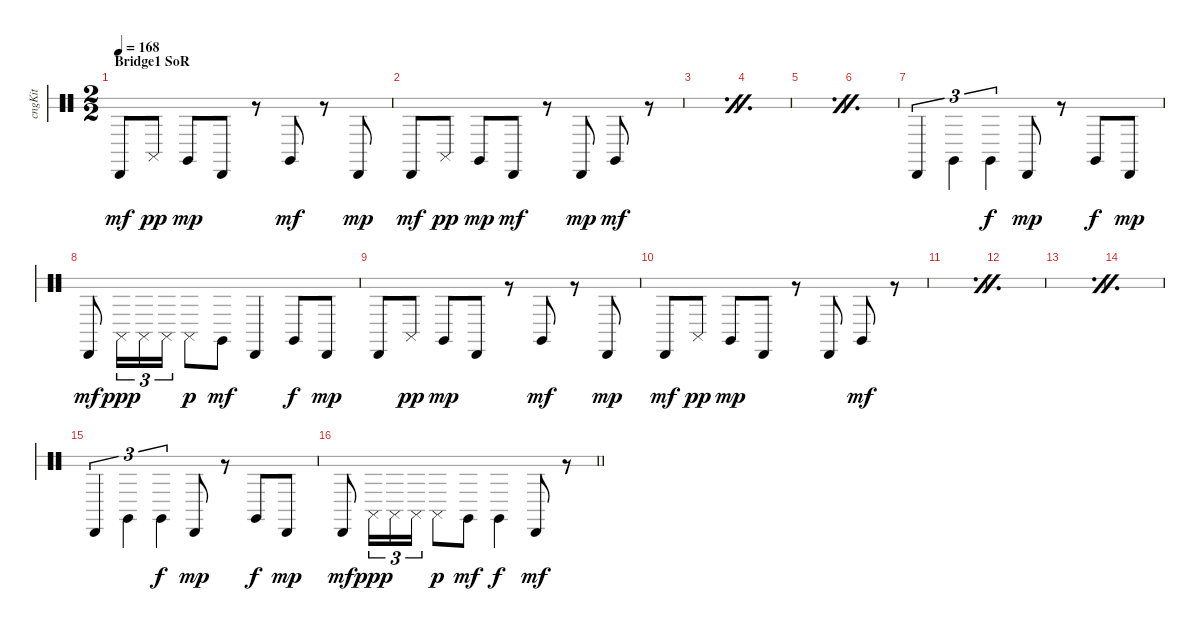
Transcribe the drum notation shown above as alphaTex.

\bracketExtendMode groupsimilarinstruments
\multiTrackTrackNamePolicy hidden
\otherSystemsTrackNameOrientation horizontal
\track ("Congas" "cngKit") {instrument percussion}
\staff {score 2}
\articulation defaults
\ts (2 2)
\section ("" "Bridge1 SoR")
\tempo 168
\clef neutral
\ks c "Conga low (hit)".8{dy mf beam Up} "Conga high (slap)".8{dy pp beam Up} "Conga high (hit)".8{dy mp beam Up} "Conga low (hit)".8{beam Up}
r.8{beam Up} "Conga high (hit)".8{dy mf beam Up} r.8{beam Up} "Conga low (hit)".8{dy mp beam Up} |
"Conga low (hit)".8{dy mf beam Up} "Conga high (slap)".8{dy pp beam Up} "Conga high (hit)".8{dy mp beam Up} "Conga low (hit)".8{dy mf beam Up} r.8{beam Up} "Conga low (hit)".8{dy mp beam Up} "Conga high (hit)".8{dy mf beam Up} r.8{beam Up} |
\simile firstofdouble
|
\simile secondofdouble
|
\simile firstofdouble
|
\simile secondofdouble
|
\simile none "Conga low (hit)".4{tu (3 2) beam Up} "Conga high (hit)".4{tu (3 2) beam Down} "Conga high (hit)".4{tu (3 2) dy f beam Down} "Conga low (hit)".8{dy mp beam Up}
r.8{beam Up} "Conga high (hit)".8{dy f beam Up} "Conga low (hit)".8{dy mp beam Up} |
"Conga low (hit)".8{dy mf beam Up} "Conga high (slap)".16{tu (3 2) dy ppp beam Down} "Conga high (slap)".16{tu (3 2) beam Down} "Conga high (slap)".16{tu (3 2) beam Down} "Conga high (slap)".8{dy p beam Down} "Conga high (hit)".8{dy mf beam Down} "Conga low (hit)".4{beam Up} "Conga high (hit)".8{dy f beam Up} "Conga low (hit)".8{dy mp beam Up} |
"Conga low (hit)".8{beam Up} "Conga high (slap)".8{dy pp beam Up} "Conga high (hit)".8{dy mp beam Up} "Conga low (hit)".8{beam Up} r.8{beam Up} "Conga high (hit)".8{dy mf beam Up} r.8{beam Up} "Conga low (hit)".8{dy mp beam Up} |
"Conga low (hit)".8{dy mf beam Up} "Conga high (slap)".8{dy pp beam Up} "Conga high (hit)".8{dy mp beam Up} "Conga low (hit)".8{beam Up} r.8{beam Up} "Conga low (hit)".8{beam Up} "Conga high (hit)".8{dy mf beam Up} r.8{beam Up} |
\simile firstofdouble
|
\simile secondofdouble
|
\simile firstofdouble
|
\simile secondofdouble
|
\simile none "Conga low (hit)".4{tu (3 2) beam Up} "Conga high (hit)".4{tu (3 2) beam Down} "Conga high (hit)".4{tu (3 2) dy f beam Down} "Conga low (hit)".8{dy mp beam Up}
r.8{beam Up} "Conga high (hit)".8{dy f beam Up} "Conga low (hit)".8{dy mp beam Up} |
\barLineRight lightlight "Conga low (hit)".8{dy mf beam Up} "Conga high (slap)".16{tu (3 2) dy ppp beam Down} "Conga high (slap)".16{tu (3 2) beam Down} "Conga high (slap)".16{tu (3 2) beam Down} "Conga high (slap)".8{dy p beam Down} "Conga high (hit)".8{dy mf beam Down} "Conga high (hit)".4{dy f beam Down} "Conga low (hit)".8{dy mf beam Up}
r.8{beam Up}
